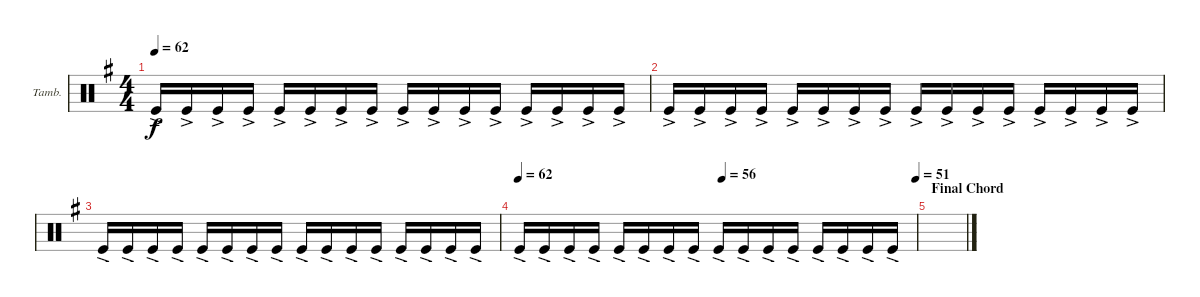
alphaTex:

\defaultSystemsLayout 4
\bracketExtendMode groupsimilarinstruments
\firstSystemTrackNameOrientation horizontal
\otherSystemsTrackNameOrientation horizontal
\track ("Tambourine" "Tamb.") {instrument percussion}
\staff {score}
\articulation defaults
\ts (4 4)
\tempo 62
\clef neutral
\ks g "Kick (hit)"{ac}.16{dy f} "Kick (hit)"{ac}.16 "Kick (hit)"{ac}.16 "Kick (hit)"{ac}.16 "Kick (hit)"{ac}.16 "Kick (hit)"{ac}.16 "Kick (hit)"{ac}.16 "Kick (hit)"{ac}.16 "Kick (hit)"{ac}.16 "Kick (hit)"{ac}.16 "Kick (hit)"{ac}.16 "Kick (hit)"{ac}.16 "Kick (hit)"{ac}.16 "Kick (hit)"{ac}.16 "Kick (hit)"{ac}.16 "Kick (hit)"{ac}.16
|
"Kick (hit)"{ac}.16 "Kick (hit)"{ac}.16 "Kick (hit)"{ac}.16 "Kick (hit)"{ac}.16 "Kick (hit)"{ac}.16 "Kick (hit)"{ac}.16 "Kick (hit)"{ac}.16 "Kick (hit)"{ac}.16 "Kick (hit)"{ac}.16 "Kick (hit)"{ac}.16 "Kick (hit)"{ac}.16 "Kick (hit)"{ac}.16 "Kick (hit)"{ac}.16 "Kick (hit)"{ac}.16 "Kick (hit)"{ac}.16 "Kick (hit)"{ac}.16 |
"Kick (hit)"{ac}.16 "Kick (hit)"{ac}.16 "Kick (hit)"{ac}.16 "Kick (hit)"{ac}.16 "Kick (hit)"{ac}.16 "Kick (hit)"{ac}.16 "Kick (hit)"{ac}.16 "Kick (hit)"{ac}.16 "Kick (hit)"{ac}.16 "Kick (hit)"{ac}.16 "Kick (hit)"{ac}.16 "Kick (hit)"{ac}.16 "Kick (hit)"{ac}.16 "Kick (hit)"{ac}.16 "Kick (hit)"{ac}.16 "Kick (hit)"{ac}.16 |
\tempo 62
\tempo (56 0.5125)
\tempo (51 1)
"Kick (hit)"{ac}.16 "Kick (hit)"{ac}.16 "Kick (hit)"{ac}.16 "Kick (hit)"{ac}.16 "Kick (hit)"{ac}.16 "Kick (hit)"{ac}.16 "Kick (hit)"{ac}.16 "Kick (hit)"{ac}.16 "Kick (hit)"{ac}.16 "Kick (hit)"{ac}.16 "Kick (hit)"{ac}.16 "Kick (hit)"{ac}.16 "Kick (hit)"{ac}.16 "Kick (hit)"{ac}.16 "Kick (hit)"{ac}.16 "Kick (hit)"{ac}.16 |
\section ("" "Final Chord")
